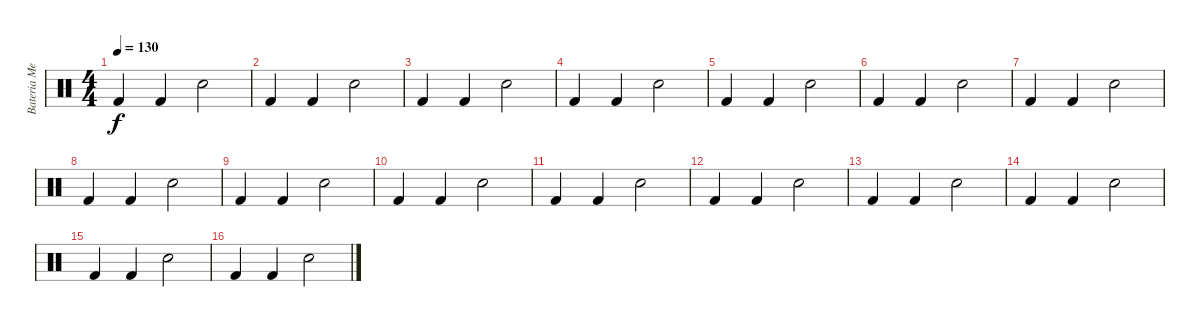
\track ("Bateria Men" "Bateria Me") {instrument percussion}
\staff {score}
\articulation defaults
\ts (4 4)
\tempo 130
\clef neutral
\ks c "Kick (hit) 2".4{dy f} "Kick (hit) 2".4 "Electric Snare (hit)".2
|
"Kick (hit) 2".4 "Kick (hit) 2".4 "Electric Snare (hit)".2 |
"Kick (hit) 2".4 "Kick (hit) 2".4 "Electric Snare (hit)".2 |
"Kick (hit) 2".4 "Kick (hit) 2".4 "Electric Snare (hit)".2 |
"Kick (hit) 2".4 "Kick (hit) 2".4 "Electric Snare (hit)".2 |
"Kick (hit) 2".4 "Kick (hit) 2".4 "Electric Snare (hit)".2 |
"Kick (hit) 2".4 "Kick (hit) 2".4 "Electric Snare (hit)".2 |
"Kick (hit) 2".4 "Kick (hit) 2".4 "Electric Snare (hit)".2 |
"Kick (hit) 2".4 "Kick (hit) 2".4 "Electric Snare (hit)".2 |
"Kick (hit) 2".4 "Kick (hit) 2".4 "Electric Snare (hit)".2 |
"Kick (hit) 2".4 "Kick (hit) 2".4 "Electric Snare (hit)".2 |
"Kick (hit) 2".4 "Kick (hit) 2".4 "Electric Snare (hit)".2 |
"Kick (hit) 2".4 "Kick (hit) 2".4 "Electric Snare (hit)".2 |
"Kick (hit) 2".4 "Kick (hit) 2".4 "Electric Snare (hit)".2 |
"Kick (hit) 2".4 "Kick (hit) 2".4 "Electric Snare (hit)".2 |
"Kick (hit) 2".4 "Kick (hit) 2".4 "Electric Snare (hit)".2
